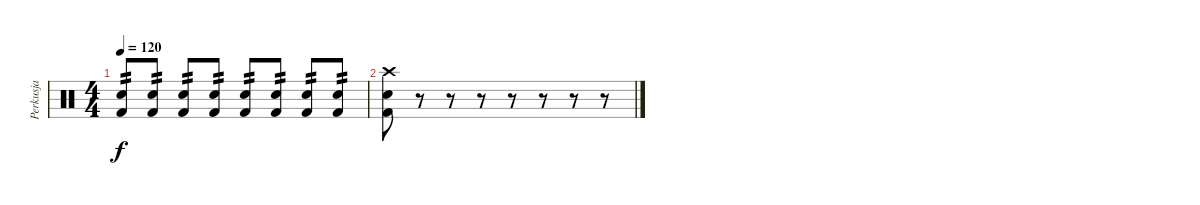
\track ("Perkusja" "Perkusja") {instrument percussion}
\staff {score}
\articulation defaults
\ts (4 4)
\tempo 120
\clef neutral
\ks c
("Kick (hit) 2" "Snare (hit) 2").8{tp 2 dy f} ("Kick (hit) 2" "Snare (hit) 2").8{tp 2} ("Kick (hit) 2" "Snare (hit) 2").8{tp 2} ("Kick (hit) 2" "Snare (hit) 2").8{tp 2} ("Kick (hit) 2" "Snare (hit) 2").8{tp 2} ("Kick (hit) 2" "Snare (hit) 2").8{tp 2} ("Kick (hit) 2" "Snare (hit) 2").8{tp 2} ("Kick (hit) 2" "Snare (hit) 2").8{tp 2} |
("Kick (hit) 2" "Crash high (hit)" "Snare (hit) 2").8 r.8 r.8 r.8 r.8 r.8 r.8 r.8
